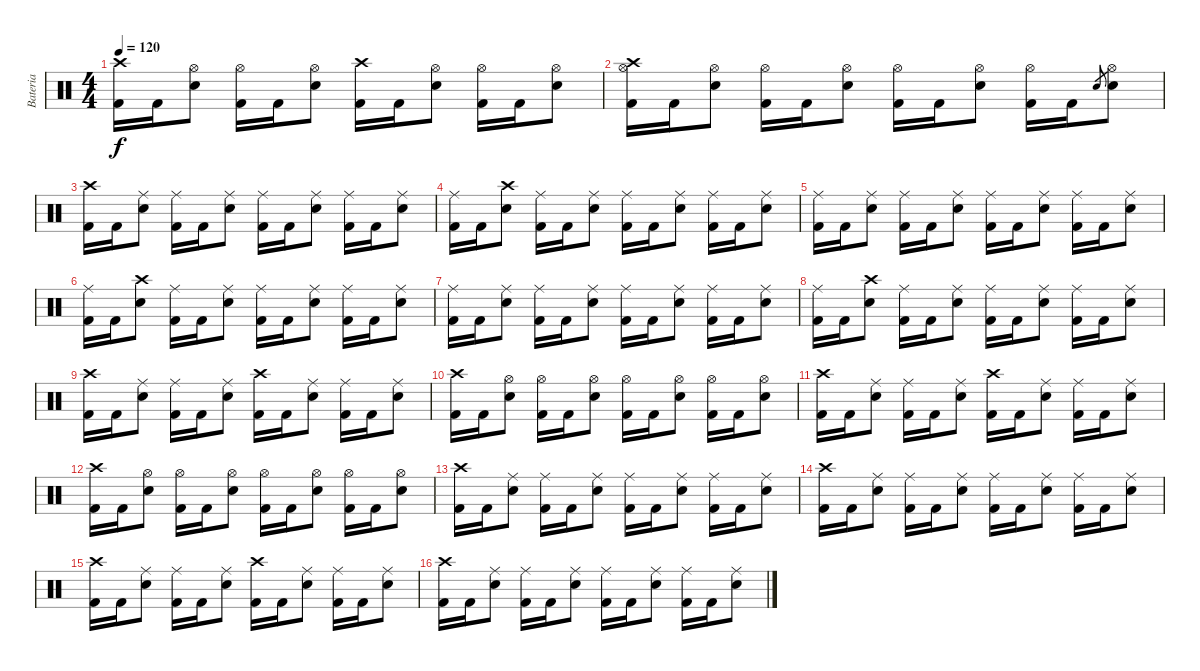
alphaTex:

\track ("Bateria" "Bateria") {instrument percussion}
\staff {score}
\articulation defaults
\ts (4 4)
\tempo 120
\clef neutral
\ks c
("Crash high (hit)" "Kick (hit) 2").16{dy f} "Kick (hit) 2".16 ("Hi-Hat (open)" "Snare (hit) 2").8 ("Hi-Hat (open)" "Kick (hit) 2").16 "Kick (hit) 2".16 ("Hi-Hat (open)" "Snare (hit) 2").8 ("Crash high (hit)" "Kick (hit) 2").16 "Kick (hit) 2".16 ("Hi-Hat (open)" "Snare (hit) 2").8 ("Hi-Hat (open)" "Kick (hit) 2").16 "Kick (hit) 2".16 ("Hi-Hat (open)" "Snare (hit) 2").8 |
("Crash high (hit)" "Hi-Hat (open)" "Kick (hit) 2").16 "Kick (hit) 2".16 ("Hi-Hat (open)" "Snare (hit) 2").8 ("Hi-Hat (open)" "Kick (hit) 2").16 "Kick (hit) 2".16 ("Hi-Hat (open)" "Snare (hit) 2").8 ("Hi-Hat (open)" "Kick (hit) 2").16 "Kick (hit) 2".16 ("Hi-Hat (open)" "Snare (hit) 2").8 ("Hi-Hat (open)" "Kick (hit) 2").16 "Kick (hit) 2".16 "Snare (hit) 2".8{gr} ("Hi-Hat (open)" "Snare (hit) 2").8 |
("Crash high (hit)" "Kick (hit) 2").16 "Kick (hit) 2".16 ("Ride (middle)" "Snare (hit) 2").8 ("Ride (middle)" "Kick (hit) 2").16 "Kick (hit) 2".16 ("Ride (middle)" "Snare (hit) 2").8 ("Ride (middle)" "Kick (hit) 2").16 "Kick (hit) 2".16 ("Ride (middle)" "Snare (hit) 2").8 ("Ride (middle)" "Kick (hit) 2").16 "Kick (hit) 2".16 ("Ride (middle)" "Snare (hit) 2").8 |
("Ride (middle)" "Kick (hit) 2").16 "Kick (hit) 2".16 ("Crash high (hit)" "Snare (hit) 2").8 ("Ride (middle)" "Kick (hit) 2").16 "Kick (hit) 2".16 ("Ride (middle)" "Snare (hit) 2").8 ("Ride (middle)" "Kick (hit) 2").16 "Kick (hit) 2".16 ("Ride (middle)" "Snare (hit) 2").8 ("Ride (middle)" "Kick (hit) 2").16 "Kick (hit) 2".16 ("Ride (middle)" "Snare (hit) 2").8 |
("Ride (middle)" "Kick (hit) 2").16 "Kick (hit) 2".16 ("Ride (middle)" "Snare (hit) 2").8 ("Ride (middle)" "Kick (hit) 2").16 "Kick (hit) 2".16 ("Ride (middle)" "Snare (hit) 2").8 ("Ride (middle)" "Kick (hit) 2").16 "Kick (hit) 2".16 ("Ride (middle)" "Snare (hit) 2").8 ("Ride (middle)" "Kick (hit) 2").16 "Kick (hit) 2".16 ("Ride (middle)" "Snare (hit) 2").8 |
("Ride (middle)" "Kick (hit) 2").16 "Kick (hit) 2".16 ("Crash high (hit)" "Snare (hit) 2").8 ("Ride (middle)" "Kick (hit) 2").16 "Kick (hit) 2".16 ("Ride (middle)" "Snare (hit) 2").8 ("Ride (middle)" "Kick (hit) 2").16 "Kick (hit) 2".16 ("Ride (middle)" "Snare (hit) 2").8 ("Ride (middle)" "Kick (hit) 2").16 "Kick (hit) 2".16 ("Ride (middle)" "Snare (hit) 2").8 |
("Ride (middle)" "Kick (hit) 2").16 "Kick (hit) 2".16 ("Ride (middle)" "Snare (hit) 2").8 ("Ride (middle)" "Kick (hit) 2").16 "Kick (hit) 2".16 ("Ride (middle)" "Snare (hit) 2").8 ("Ride (middle)" "Kick (hit) 2").16 "Kick (hit) 2".16 ("Ride (middle)" "Snare (hit) 2").8 ("Ride (middle)" "Kick (hit) 2").16 "Kick (hit) 2".16 ("Ride (middle)" "Snare (hit) 2").8 |
("Ride (middle)" "Kick (hit) 2").16 "Kick (hit) 2".16 ("Crash high (hit)" "Snare (hit) 2").8 ("Ride (middle)" "Kick (hit) 2").16 "Kick (hit) 2".16 ("Ride (middle)" "Snare (hit) 2").8 ("Ride (middle)" "Kick (hit) 2").16 "Kick (hit) 2".16 ("Ride (middle)" "Snare (hit) 2").8 ("Ride (middle)" "Kick (hit) 2").16 "Kick (hit) 2".16 ("Ride (middle)" "Snare (hit) 2").8 |
("Crash high (hit)" "Kick (hit) 2").16 "Kick (hit) 2".16 ("Ride (middle)" "Snare (hit) 2").8 ("Ride (middle)" "Kick (hit) 2").16 "Kick (hit) 2".16 ("Ride (middle)" "Snare (hit) 2").8 ("Crash high (hit)" "Kick (hit) 2").16 "Kick (hit) 2".16 ("Ride (middle)" "Snare (hit) 2").8 ("Ride (middle)" "Kick (hit) 2").16 "Kick (hit) 2".16 ("Ride (middle)" "Snare (hit) 2").8 |
("Crash high (hit)" "Kick (hit) 2").16 "Kick (hit) 2".16 ("Hi-Hat (open)" "Snare (hit) 2").8 ("Hi-Hat (open)" "Kick (hit) 2").16 "Kick (hit) 2".16 ("Hi-Hat (open)" "Snare (hit) 2").8 ("Hi-Hat (open)" "Kick (hit) 2").16 "Kick (hit) 2".16 ("Hi-Hat (open)" "Snare (hit) 2").8 ("Hi-Hat (open)" "Kick (hit) 2").16 "Kick (hit) 2".16 ("Hi-Hat (open)" "Snare (hit) 2").8 |
("Crash high (hit)" "Kick (hit) 2").16 "Kick (hit) 2".16 ("Ride (middle)" "Snare (hit) 2").8 ("Ride (middle)" "Kick (hit) 2").16 "Kick (hit) 2".16 ("Ride (middle)" "Snare (hit) 2").8 ("Crash high (hit)" "Kick (hit) 2").16 "Kick (hit) 2".16 ("Ride (middle)" "Snare (hit) 2").8 ("Ride (middle)" "Kick (hit) 2").16 "Kick (hit) 2".16 ("Ride (middle)" "Snare (hit) 2").8 |
("Crash high (hit)" "Kick (hit) 2").16 "Kick (hit) 2".16 ("Hi-Hat (open)" "Snare (hit) 2").8 ("Hi-Hat (open)" "Kick (hit) 2").16 "Kick (hit) 2".16 ("Hi-Hat (open)" "Snare (hit) 2").8 ("Hi-Hat (open)" "Kick (hit) 2").16 "Kick (hit) 2".16 ("Hi-Hat (open)" "Snare (hit) 2").8 ("Hi-Hat (open)" "Kick (hit) 2").16 "Kick (hit) 2".16 ("Hi-Hat (open)" "Snare (hit) 2").8 |
("Crash high (hit)" "Kick (hit) 2").16 "Kick (hit) 2".16 ("Ride (middle)" "Snare (hit) 2").8 ("Ride (middle)" "Kick (hit) 2").16 "Kick (hit) 2".16 ("Ride (middle)" "Snare (hit) 2").8 ("Ride (middle)" "Kick (hit) 2").16 "Kick (hit) 2".16 ("Ride (middle)" "Snare (hit) 2").8 ("Ride (middle)" "Kick (hit) 2").16 "Kick (hit) 2".16 ("Ride (middle)" "Snare (hit) 2").8 |
("Crash high (hit)" "Kick (hit) 2").16 "Kick (hit) 2".16 ("Ride (middle)" "Snare (hit) 2").8 ("Ride (middle)" "Kick (hit) 2").16 "Kick (hit) 2".16 ("Ride (middle)" "Snare (hit) 2").8 ("Ride (middle)" "Kick (hit) 2").16 "Kick (hit) 2".16 ("Ride (middle)" "Snare (hit) 2").8 ("Ride (middle)" "Kick (hit) 2").16 "Kick (hit) 2".16 ("Ride (middle)" "Snare (hit) 2").8 |
("Crash high (hit)" "Kick (hit) 2").16 "Kick (hit) 2".16 ("Ride (middle)" "Snare (hit) 2").8 ("Ride (middle)" "Kick (hit) 2").16 "Kick (hit) 2".16 ("Ride (middle)" "Snare (hit) 2").8 ("Crash high (hit)" "Kick (hit) 2").16 "Kick (hit) 2".16 ("Ride (middle)" "Snare (hit) 2").8 ("Ride (middle)" "Kick (hit) 2").16 "Kick (hit) 2".16 ("Ride (middle)" "Snare (hit) 2").8 |
("Crash high (hit)" "Kick (hit) 2").16 "Kick (hit) 2".16 ("Ride (middle)" "Snare (hit) 2").8 ("Ride (middle)" "Kick (hit) 2").16 "Kick (hit) 2".16 ("Ride (middle)" "Snare (hit) 2").8 ("Ride (middle)" "Kick (hit) 2").16 "Kick (hit) 2".16 ("Ride (middle)" "Snare (hit) 2").8 ("Ride (middle)" "Kick (hit) 2").16 "Kick (hit) 2".16 ("Ride (middle)" "Snare (hit) 2").8
